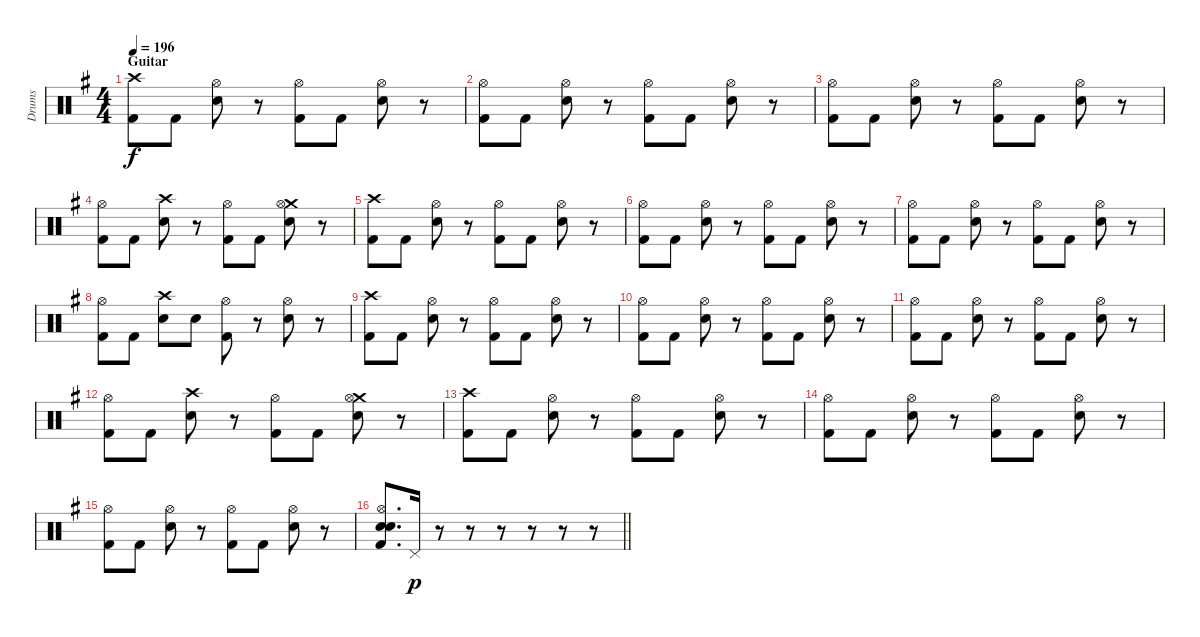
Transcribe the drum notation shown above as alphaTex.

\track ("Drums" "Drums") {instrument percussion}
\staff {score}
\articulation defaults
\ts (4 4)
\section ("" "Guitar")
\tempo 196
\clef neutral
\ks eminor
("Crash high (hit)" "Kick (hit) 2").8{dy f} "Kick (hit) 2".8 ("Hi-Hat (open)" "Electric Snare (hit)").8 r.8 ("Hi-Hat (open)" "Kick (hit) 2").8 "Kick (hit) 2".8 ("Hi-Hat (open)" "Electric Snare (hit)").8 r.8 |
("Hi-Hat (open)" "Kick (hit) 2").8 "Kick (hit) 2".8 ("Hi-Hat (open)" "Electric Snare (hit)").8 r.8 ("Hi-Hat (open)" "Kick (hit) 2").8 "Kick (hit) 2".8 ("Hi-Hat (open)" "Electric Snare (hit)").8 r.8 |
("Hi-Hat (open)" "Kick (hit) 2").8 "Kick (hit) 2".8 ("Hi-Hat (open)" "Electric Snare (hit)").8 r.8 ("Hi-Hat (open)" "Kick (hit) 2").8 "Kick (hit) 2".8 ("Hi-Hat (open)" "Electric Snare (hit)").8 r.8 |
("Hi-Hat (open)" "Kick (hit) 2").8 "Kick (hit) 2".8 ("Crash high (hit)" "Electric Snare (hit)").8 r.8 ("Hi-Hat (open)" "Kick (hit) 2").8 "Kick (hit) 2".8 ("Crash medium (hit)" "Hi-Hat (open)" "Electric Snare (hit)").8 r.8 |
("Crash high (hit)" "Kick (hit) 2").8 "Kick (hit) 2".8 ("Hi-Hat (open)" "Electric Snare (hit)").8 r.8 ("Hi-Hat (open)" "Kick (hit) 2").8 "Kick (hit) 2".8 ("Hi-Hat (open)" "Electric Snare (hit)").8 r.8 |
("Hi-Hat (open)" "Kick (hit) 2").8 "Kick (hit) 2".8 ("Hi-Hat (open)" "Electric Snare (hit)").8 r.8 ("Hi-Hat (open)" "Kick (hit) 2").8 "Kick (hit) 2".8 ("Hi-Hat (open)" "Electric Snare (hit)").8 r.8 |
("Hi-Hat (open)" "Kick (hit) 2").8 "Kick (hit) 2".8 ("Hi-Hat (open)" "Electric Snare (hit)").8 r.8 ("Hi-Hat (open)" "Kick (hit) 2").8 "Kick (hit) 2".8 ("Hi-Hat (open)" "Electric Snare (hit)").8 r.8 |
("Hi-Hat (open)" "Kick (hit) 2").8 "Kick (hit) 2".8 ("Crash high (hit)" "Electric Snare (hit)").8 "Electric Snare (hit)".8 ("Hi-Hat (open)" "Kick (hit) 2").8 r.8 ("Hi-Hat (open)" "Electric Snare (hit)").8 r.8 |
("Crash high (hit)" "Kick (hit) 2").8 "Kick (hit) 2".8 ("Hi-Hat (open)" "Electric Snare (hit)").8 r.8 ("Hi-Hat (open)" "Kick (hit) 2").8 "Kick (hit) 2".8 ("Hi-Hat (open)" "Electric Snare (hit)").8 r.8 |
("Hi-Hat (open)" "Kick (hit) 2").8 "Kick (hit) 2".8 ("Hi-Hat (open)" "Electric Snare (hit)").8 r.8 ("Hi-Hat (open)" "Kick (hit) 2").8 "Kick (hit) 2".8 ("Hi-Hat (open)" "Electric Snare (hit)").8 r.8 |
("Hi-Hat (open)" "Kick (hit) 2").8 "Kick (hit) 2".8 ("Hi-Hat (open)" "Electric Snare (hit)").8 r.8 ("Hi-Hat (open)" "Kick (hit) 2").8 "Kick (hit) 2".8 ("Hi-Hat (open)" "Electric Snare (hit)").8 r.8 |
("Hi-Hat (open)" "Kick (hit) 2").8 "Kick (hit) 2".8 ("Crash high (hit)" "Electric Snare (hit)").8 r.8 ("Hi-Hat (open)" "Kick (hit) 2").8 "Kick (hit) 2".8 ("Crash medium (hit)" "Hi-Hat (open)" "Electric Snare (hit)").8 r.8 |
("Crash high (hit)" "Kick (hit) 2").8 "Kick (hit) 2".8 ("Hi-Hat (open)" "Electric Snare (hit)").8 r.8 ("Hi-Hat (open)" "Kick (hit) 2").8 "Kick (hit) 2".8 ("Hi-Hat (open)" "Electric Snare (hit)").8 r.8 |
("Hi-Hat (open)" "Kick (hit) 2").8 "Kick (hit) 2".8 ("Hi-Hat (open)" "Electric Snare (hit)").8 r.8 ("Hi-Hat (open)" "Kick (hit) 2").8 "Kick (hit) 2".8 ("Hi-Hat (open)" "Electric Snare (hit)").8 r.8 |
("Hi-Hat (open)" "Kick (hit) 2").8 "Kick (hit) 2".8 ("Hi-Hat (open)" "Electric Snare (hit)").8 r.8 ("Hi-Hat (open)" "Kick (hit) 2").8 "Kick (hit) 2".8 ("Hi-Hat (open)" "Electric Snare (hit)").8 r.8 |
\barLineRight lightlight
("Hi-Hat (open)" "Electric Snare (hit)" "Electric Snare (hit)" "Kick (hit) 2").8{d} "Pedal Hi-Hat (hit)".16{dy p} r.8 r.8 r.8 r.8 r.8 r.8
